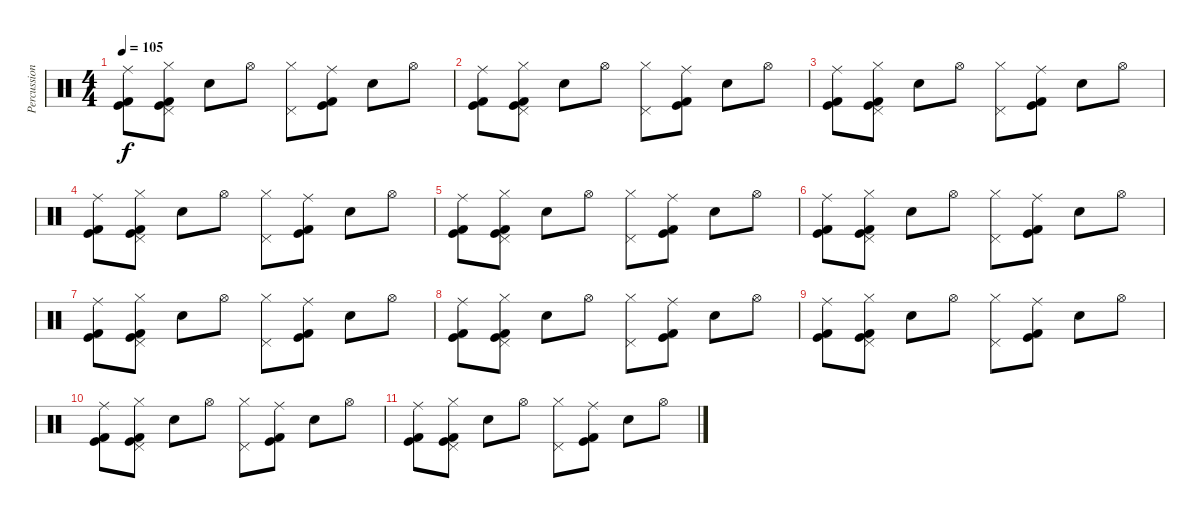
\track ("Percussion" "Percussion") {instrument percussion}
\staff {score}
\articulation defaults
\ts (4 4)
\tempo 105
\clef neutral
\ks c
("Ride (middle)" "Kick (hit)" "Kick (hit) 2").8{dy f} ("Kick (hit) 2" "Kick (hit)" "Pedal Hi-Hat (hit)" "Hi-Hat (closed)").8 "Snare (hit) 2".8 "Hi-Hat (open)".8 ("Pedal Hi-Hat (hit)" "Hi-Hat (closed)").8 ("Kick (hit) 2" "Kick (hit)" "Ride (middle)").8 "Snare (hit) 2".8 "Hi-Hat (open)".8 |
("Ride (middle)" "Kick (hit)" "Kick (hit) 2").8 ("Kick (hit) 2" "Kick (hit)" "Pedal Hi-Hat (hit)" "Hi-Hat (closed)").8 "Snare (hit) 2".8 "Hi-Hat (open)".8 ("Pedal Hi-Hat (hit)" "Hi-Hat (closed)").8 ("Kick (hit) 2" "Kick (hit)" "Ride (middle)").8 "Snare (hit) 2".8 "Hi-Hat (open)".8 |
("Ride (middle)" "Kick (hit)" "Kick (hit) 2").8 ("Kick (hit) 2" "Kick (hit)" "Pedal Hi-Hat (hit)" "Hi-Hat (closed)").8 "Snare (hit) 2".8 "Hi-Hat (open)".8 ("Pedal Hi-Hat (hit)" "Hi-Hat (closed)").8 ("Kick (hit) 2" "Kick (hit)" "Ride (middle)").8 "Snare (hit) 2".8 "Hi-Hat (open)".8 |
("Ride (middle)" "Kick (hit)" "Kick (hit) 2").8 ("Kick (hit) 2" "Kick (hit)" "Pedal Hi-Hat (hit)" "Hi-Hat (closed)").8 "Snare (hit) 2".8 "Hi-Hat (open)".8 ("Pedal Hi-Hat (hit)" "Hi-Hat (closed)").8 ("Kick (hit) 2" "Kick (hit)" "Ride (middle)").8 "Snare (hit) 2".8 "Hi-Hat (open)".8 |
("Ride (middle)" "Kick (hit)" "Kick (hit) 2").8 ("Kick (hit) 2" "Kick (hit)" "Pedal Hi-Hat (hit)" "Hi-Hat (closed)").8 "Snare (hit) 2".8 "Hi-Hat (open)".8 ("Pedal Hi-Hat (hit)" "Hi-Hat (closed)").8 ("Kick (hit) 2" "Kick (hit)" "Ride (middle)").8 "Snare (hit) 2".8 "Hi-Hat (open)".8 |
("Ride (middle)" "Kick (hit)" "Kick (hit) 2").8 ("Kick (hit) 2" "Kick (hit)" "Pedal Hi-Hat (hit)" "Hi-Hat (closed)").8 "Snare (hit) 2".8 "Hi-Hat (open)".8 ("Pedal Hi-Hat (hit)" "Hi-Hat (closed)").8 ("Kick (hit) 2" "Kick (hit)" "Ride (middle)").8 "Snare (hit) 2".8 "Hi-Hat (open)".8 |
("Ride (middle)" "Kick (hit)" "Kick (hit) 2").8{volume 16} ("Kick (hit) 2" "Kick (hit)" "Pedal Hi-Hat (hit)" "Hi-Hat (closed)").8{volume 16} "Snare (hit) 2".8{volume 16} "Hi-Hat (open)".8{volume 16} ("Pedal Hi-Hat (hit)" "Hi-Hat (closed)").8{volume 16} ("Kick (hit) 2" "Kick (hit)" "Ride (middle)").8{volume 16} "Snare (hit) 2".8{volume 16} "Hi-Hat (open)".8{volume 16} |
("Ride (middle)" "Kick (hit)" "Kick (hit) 2").8 ("Kick (hit) 2" "Kick (hit)" "Pedal Hi-Hat (hit)" "Hi-Hat (closed)").8 "Snare (hit) 2".8 "Hi-Hat (open)".8 ("Pedal Hi-Hat (hit)" "Hi-Hat (closed)").8 ("Kick (hit) 2" "Kick (hit)" "Ride (middle)").8 "Snare (hit) 2".8 "Hi-Hat (open)".8 |
("Ride (middle)" "Kick (hit)" "Kick (hit) 2").8{volume 10} ("Kick (hit) 2" "Kick (hit)" "Pedal Hi-Hat (hit)" "Hi-Hat (closed)").8{volume 10} "Snare (hit) 2".8{volume 10} "Hi-Hat (open)".8{volume 10} ("Pedal Hi-Hat (hit)" "Hi-Hat (closed)").8{volume 10} ("Kick (hit) 2" "Kick (hit)" "Ride (middle)").8{volume 10} "Snare (hit) 2".8{volume 10} "Hi-Hat (open)".8{volume 10} |
("Ride (middle)" "Kick (hit)" "Kick (hit) 2").8{volume 6} ("Kick (hit) 2" "Kick (hit)" "Pedal Hi-Hat (hit)" "Hi-Hat (closed)").8{volume 6} "Snare (hit) 2".8{volume 6} "Hi-Hat (open)".8{volume 6} ("Pedal Hi-Hat (hit)" "Hi-Hat (closed)").8{volume 6} ("Kick (hit) 2" "Kick (hit)" "Ride (middle)").8{volume 6} "Snare (hit) 2".8{volume 6} "Hi-Hat (open)".8{volume 6} |
("Ride (middle)" "Kick (hit)" "Kick (hit) 2").8{volume 3} ("Kick (hit) 2" "Kick (hit)" "Pedal Hi-Hat (hit)" "Hi-Hat (closed)").8{volume 3} "Snare (hit) 2".8{volume 3} "Hi-Hat (open)".8{volume 3} ("Pedal Hi-Hat (hit)" "Hi-Hat (closed)").8{volume 3} ("Kick (hit) 2" "Kick (hit)" "Ride (middle)").8{volume 3} "Snare (hit) 2".8{volume 3} "Hi-Hat (open)".8{volume 3}
